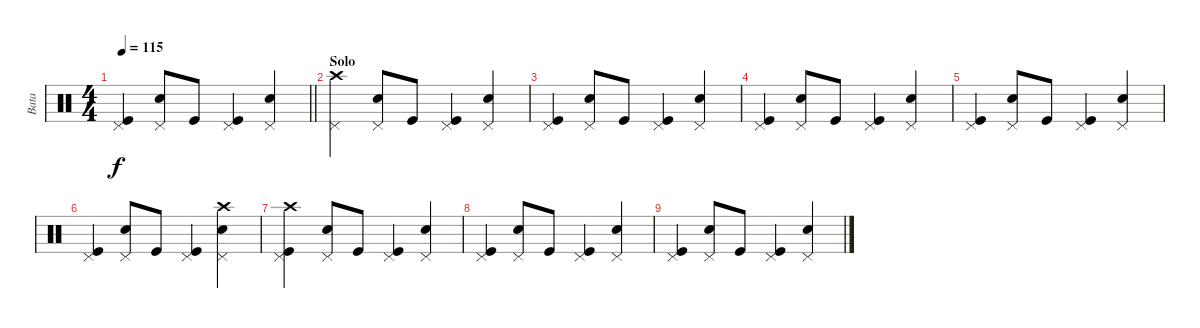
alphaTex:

\track ("Bata" "Bata") {instrument percussion}
\staff {score}
\articulation defaults
\ts (4 4)
\tempo 115
\clef neutral
\barLineRight lightlight
\ks c
("Kick (hit)" "Pedal Hi-Hat (hit)").4{dy f} ("Snare (hit) 2" "Pedal Hi-Hat (hit)").8 "Kick (hit)".8 ("Kick (hit)" "Pedal Hi-Hat (hit)").4 ("Snare (hit) 2" "Pedal Hi-Hat (hit)").4 |
\section ("" "Solo")
("Crash high (hit)" "Pedal Hi-Hat (hit)").4 ("Snare (hit) 2" "Pedal Hi-Hat (hit)").8 "Kick (hit)".8 ("Kick (hit)" "Pedal Hi-Hat (hit)").4 ("Snare (hit) 2" "Pedal Hi-Hat (hit)").4 |
("Kick (hit)" "Pedal Hi-Hat (hit)").4 ("Snare (hit) 2" "Pedal Hi-Hat (hit)").8 "Kick (hit)".8 ("Kick (hit)" "Pedal Hi-Hat (hit)").4 ("Snare (hit) 2" "Pedal Hi-Hat (hit)").4 |
("Kick (hit)" "Pedal Hi-Hat (hit)").4 ("Snare (hit) 2" "Pedal Hi-Hat (hit)").8 "Kick (hit)".8 ("Kick (hit)" "Pedal Hi-Hat (hit)").4 ("Snare (hit) 2" "Pedal Hi-Hat (hit)").4 |
("Kick (hit)" "Pedal Hi-Hat (hit)").4 ("Snare (hit) 2" "Pedal Hi-Hat (hit)").8 "Kick (hit)".8 ("Kick (hit)" "Pedal Hi-Hat (hit)").4 ("Snare (hit) 2" "Pedal Hi-Hat (hit)").4 |
("Kick (hit)" "Pedal Hi-Hat (hit)").4 ("Snare (hit) 2" "Pedal Hi-Hat (hit)").8 "Kick (hit)".8 ("Kick (hit)" "Pedal Hi-Hat (hit)").4 ("Snare (hit) 2" "Crash high (hit)" "Pedal Hi-Hat (hit)").4 |
("Kick (hit)" "Crash high (hit)" "Pedal Hi-Hat (hit)").4 ("Snare (hit) 2" "Pedal Hi-Hat (hit)").8 "Kick (hit)".8 ("Kick (hit)" "Pedal Hi-Hat (hit)").4 ("Snare (hit) 2" "Pedal Hi-Hat (hit)").4 |
("Kick (hit)" "Pedal Hi-Hat (hit)").4 ("Snare (hit) 2" "Pedal Hi-Hat (hit)").8 "Kick (hit)".8 ("Kick (hit)" "Pedal Hi-Hat (hit)").4 ("Snare (hit) 2" "Pedal Hi-Hat (hit)").4 |
("Kick (hit)" "Pedal Hi-Hat (hit)").4 ("Snare (hit) 2" "Pedal Hi-Hat (hit)").8 "Kick (hit)".8 ("Kick (hit)" "Pedal Hi-Hat (hit)").4 ("Snare (hit) 2" "Pedal Hi-Hat (hit)").4
